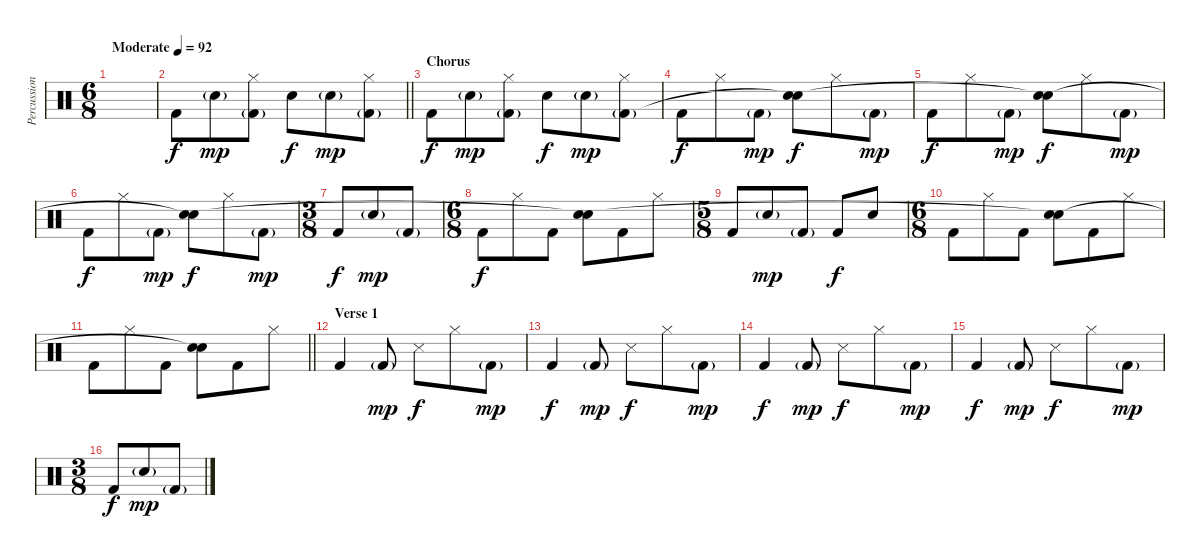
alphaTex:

\track ("Percussion" "Percussion") {instrument percussion}
\staff {score}
\articulation defaults
\ts (6 8)
\tempo (92 "Moderate")
\clef neutral
\ks c
|
\barLineRight lightlight "Kick (hit) 2".8 "Snare (hit) 2"{g}.8{dy mp}
("Hi-Hat (closed)" "Kick (hit) 2"{g}).8 "Snare (hit) 2".8{dy f} "Snare (hit) 2"{g}.8{dy mp} ("Hi-Hat (closed)" "Kick (hit) 2"{g}).8 |
\section ("" "Chorus")
"Kick (hit) 2".8{dy f} "Snare (hit) 2"{g}.8{dy mp} ("Hi-Hat (closed)" "Kick (hit) 2"{g}).8 "Snare (hit) 2".8{dy f} "Snare (hit) 2"{g}.8{dy mp} ("Hi-Hat (closed)" "Kick (hit) 2"{g}).8 |
"Kick (hit) 2".8{dy f} "Hi-Hat (closed)".8 "Kick (hit) 2"{g}.8{dy mp} ("Snare (hit) 2" "Snare (hit)"{t}).8{dy f} "Hi-Hat (closed)".8 "Kick (hit) 2"{g}.8{dy mp} |
"Kick (hit) 2".8{dy f} "Hi-Hat (closed)".8 "Kick (hit) 2"{g}.8{dy mp} ("Snare (hit) 2" "Snare (hit)"{t}).8{dy f} "Hi-Hat (closed)".8 "Kick (hit) 2"{g}.8{dy mp} |
"Kick (hit) 2".8{dy f} "Hi-Hat (closed)".8 "Kick (hit) 2"{g}.8{dy mp} ("Snare (hit) 2" "Snare (hit)"{t}).8{dy f} "Hi-Hat (closed)".8 "Kick (hit) 2"{g}.8{dy mp} |
\ts (3 8)
"Kick (hit) 2".8{dy f} "Snare (hit) 2"{g}.8{dy mp} "Kick (hit) 2"{g}.8 |
\ts (6 8)
"Kick (hit) 2".8{dy f} "Hi-Hat (closed)".8 "Kick (hit) 2".8 ("Snare (hit) 2" "Snare (hit)"{t}).8 "Kick (hit) 2".8 "Hi-Hat (closed)".8 |
\ts (5 8)
"Kick (hit) 2".8 "Snare (hit) 2"{g}.8{dy mp} "Kick (hit) 2"{g}.8 "Kick (hit) 2".8{dy f} "Snare (hit) 2".8 |
\ts (6 8)
"Kick (hit) 2".8 "Hi-Hat (closed)".8 "Kick (hit) 2".8 ("Snare (hit) 2" "Snare (hit)"{t}).8 "Kick (hit) 2".8 "Hi-Hat (closed)".8 |
\barLineRight lightlight "Kick (hit) 2".8 "Hi-Hat (closed)".8 "Kick (hit) 2".8
("Snare (hit) 2" "Snare (hit)"{t}).8 "Kick (hit) 2".8 "Hi-Hat (closed)".8 |
\section ("" "Verse 1")
"Kick (hit) 2".4 "Kick (hit) 2"{g}.8{dy mp} "Snare (side stick) 3".8{dy f} "Hi-Hat (closed)".8 "Kick (hit) 2"{g}.8{dy mp} |
"Kick (hit) 2".4{dy f} "Kick (hit) 2"{g}.8{dy mp} "Snare (side stick) 3".8{dy f} "Hi-Hat (closed)".8 "Kick (hit) 2"{g}.8{dy mp} |
"Kick (hit) 2".4{dy f} "Kick (hit) 2"{g}.8{dy mp} "Snare (side stick) 3".8{dy f} "Hi-Hat (closed)".8 "Kick (hit) 2"{g}.8{dy mp} |
"Kick (hit) 2".4{dy f} "Kick (hit) 2"{g}.8{dy mp} "Snare (side stick) 3".8{dy f} "Hi-Hat (closed)".8 "Kick (hit) 2"{g}.8{dy mp} |
\ts (3 8)
"Kick (hit) 2".8{dy f} "Snare (hit) 2"{g}.8{dy mp} "Kick (hit) 2"{g}.8
